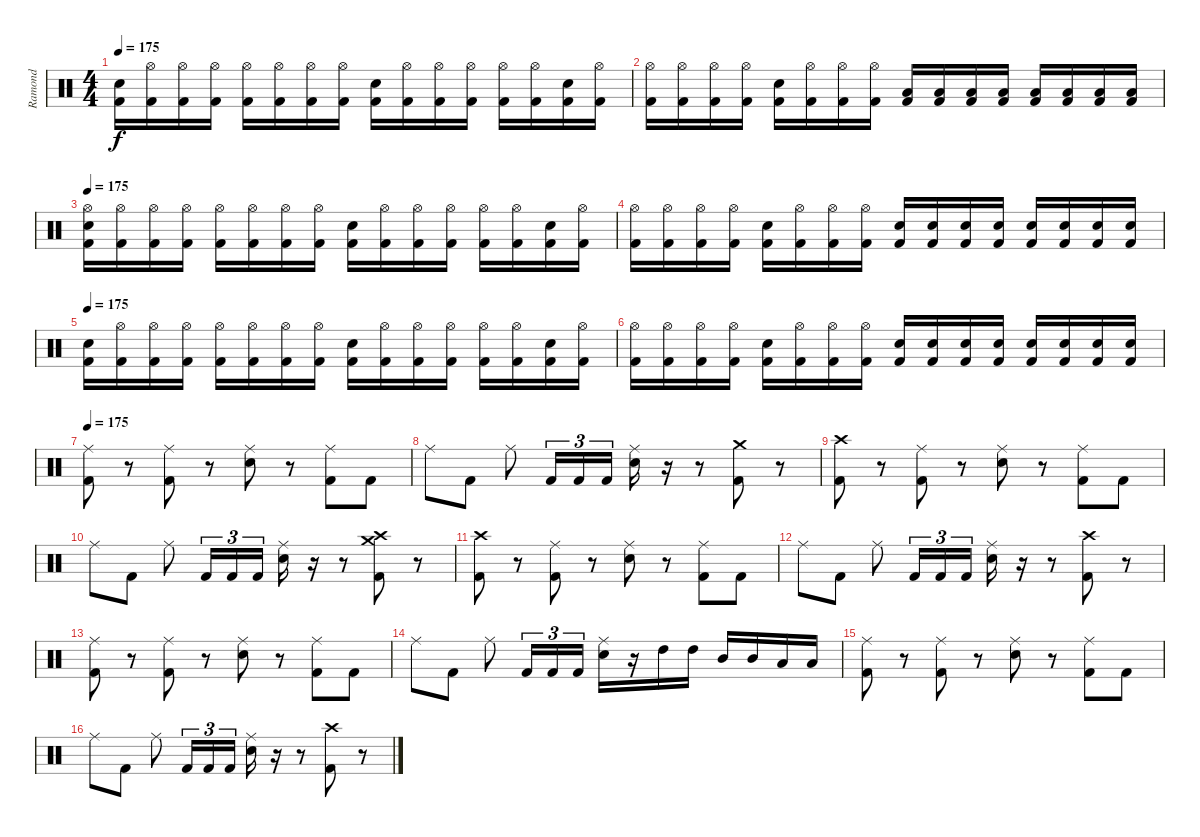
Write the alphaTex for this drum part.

\track ("Ramond" "Ramond") {instrument percussion}
\staff {score}
\articulation defaults
\ts (4 4)
\tempo 175
\clef neutral
\ks c
("Electric Snare (hit)" "Kick (hit) 2").16{dy f} ("Hi-Hat (open)" "Kick (hit) 2").16 ("Hi-Hat (open)" "Kick (hit) 2").16 ("Hi-Hat (open)" "Kick (hit) 2").16 ("Hi-Hat (open)" "Kick (hit) 2").16 ("Hi-Hat (open)" "Kick (hit) 2").16 ("Hi-Hat (open)" "Kick (hit) 2").16 ("Hi-Hat (open)" "Kick (hit) 2").16 ("Electric Snare (hit)" "Kick (hit) 2").16 ("Hi-Hat (open)" "Kick (hit) 2").16 ("Hi-Hat (open)" "Kick (hit) 2").16 ("Hi-Hat (open)" "Kick (hit) 2").16 ("Hi-Hat (open)" "Kick (hit) 2").16 ("Hi-Hat (open)" "Kick (hit) 2").16 ("Electric Snare (hit)" "Kick (hit) 2").16 ("Hi-Hat (open)" "Kick (hit) 2").16 |
("Hi-Hat (open)" "Kick (hit) 2").16 ("Hi-Hat (open)" "Kick (hit) 2").16 ("Hi-Hat (open)" "Kick (hit) 2").16 ("Hi-Hat (open)" "Kick (hit) 2").16 ("Electric Snare (hit)" "Kick (hit) 2").16 ("Hi-Hat (open)" "Kick (hit) 2").16 ("Hi-Hat (open)" "Kick (hit) 2").16 ("Hi-Hat (open)" "Kick (hit) 2").16 ("Low Floor Tom (hit)" "Kick (hit) 2").16 ("Low Floor Tom (hit)" "Kick (hit) 2").16 ("Low Floor Tom (hit)" "Kick (hit) 2").16 ("Low Floor Tom (hit)" "Kick (hit) 2").16 ("Low Floor Tom (hit)" "Kick (hit) 2").16 ("Low Floor Tom (hit)" "Kick (hit) 2").16 ("Low Floor Tom (hit)" "Kick (hit) 2").16 ("Low Floor Tom (hit)" "Kick (hit) 2").16 |
\tempo 175
("Hi-Hat (open)" "Electric Snare (hit)" "Kick (hit) 2").16 ("Hi-Hat (open)" "Kick (hit) 2").16 ("Hi-Hat (open)" "Kick (hit) 2").16 ("Hi-Hat (open)" "Kick (hit) 2").16 ("Hi-Hat (open)" "Kick (hit) 2").16 ("Hi-Hat (open)" "Kick (hit) 2").16 ("Hi-Hat (open)" "Kick (hit) 2").16 ("Hi-Hat (open)" "Kick (hit) 2").16 ("Electric Snare (hit)" "Kick (hit) 2").16 ("Hi-Hat (open)" "Kick (hit) 2").16 ("Hi-Hat (open)" "Kick (hit) 2").16 ("Hi-Hat (open)" "Kick (hit) 2").16 ("Hi-Hat (open)" "Kick (hit) 2").16 ("Hi-Hat (open)" "Kick (hit) 2").16 ("Electric Snare (hit)" "Kick (hit) 2").16 ("Hi-Hat (open)" "Kick (hit) 2").16 |
("Hi-Hat (open)" "Kick (hit) 2").16 ("Hi-Hat (open)" "Kick (hit) 2").16 ("Hi-Hat (open)" "Kick (hit) 2").16 ("Hi-Hat (open)" "Kick (hit) 2").16 ("Electric Snare (hit)" "Kick (hit) 2").16 ("Hi-Hat (open)" "Kick (hit) 2").16 ("Hi-Hat (open)" "Kick (hit) 2").16 ("Hi-Hat (open)" "Kick (hit) 2").16 ("Electric Snare (hit)" "Kick (hit) 2").16 ("Electric Snare (hit)" "Kick (hit) 2").16 ("Electric Snare (hit)" "Kick (hit) 2").16 ("Electric Snare (hit)" "Kick (hit) 2").16 ("Electric Snare (hit)" "Kick (hit) 2").16 ("Electric Snare (hit)" "Kick (hit) 2").16 ("Electric Snare (hit)" "Kick (hit) 2").16 ("Electric Snare (hit)" "Kick (hit) 2").16 |
\tempo 175
("Electric Snare (hit)" "Kick (hit) 2").16 ("Hi-Hat (open)" "Kick (hit) 2").16 ("Hi-Hat (open)" "Kick (hit) 2").16 ("Hi-Hat (open)" "Kick (hit) 2").16 ("Hi-Hat (open)" "Kick (hit) 2").16 ("Hi-Hat (open)" "Kick (hit) 2").16 ("Hi-Hat (open)" "Kick (hit) 2").16 ("Hi-Hat (open)" "Kick (hit) 2").16 ("Electric Snare (hit)" "Kick (hit) 2").16 ("Hi-Hat (open)" "Kick (hit) 2").16 ("Hi-Hat (open)" "Kick (hit) 2").16 ("Hi-Hat (open)" "Kick (hit) 2").16 ("Hi-Hat (open)" "Kick (hit) 2").16 ("Hi-Hat (open)" "Kick (hit) 2").16 ("Electric Snare (hit)" "Kick (hit) 2").16 ("Hi-Hat (open)" "Kick (hit) 2").16 |
("Hi-Hat (open)" "Kick (hit) 2").16 ("Hi-Hat (open)" "Kick (hit) 2").16 ("Hi-Hat (open)" "Kick (hit) 2").16 ("Hi-Hat (open)" "Kick (hit) 2").16 ("Electric Snare (hit)" "Kick (hit) 2").16 ("Hi-Hat (open)" "Kick (hit) 2").16 ("Hi-Hat (open)" "Kick (hit) 2").16 ("Hi-Hat (open)" "Kick (hit) 2").16 ("Electric Snare (hit)" "Kick (hit) 2").16 ("Electric Snare (hit)" "Kick (hit) 2").16 ("Electric Snare (hit)" "Kick (hit) 2").16 ("Electric Snare (hit)" "Kick (hit) 2").16 ("Electric Snare (hit)" "Kick (hit) 2").16 ("Electric Snare (hit)" "Kick (hit) 2").16 ("Electric Snare (hit)" "Kick (hit) 2").16 ("Electric Snare (hit)" "Kick (hit) 2").16 |
\tempo 175
("Ride (middle)" "Kick (hit) 2").8 r.8 ("Ride (middle)" "Kick (hit) 2").8 r.8 ("Ride (middle)" "Electric Snare (hit)").8 r.8 ("Ride (middle)" "Kick (hit) 2").8 "Kick (hit) 2".8 |
"Ride (middle)".8 "Kick (hit) 2".8 "Ride (middle)".8 "Kick (hit) 2".16{tu (3 2)} "Kick (hit) 2".16{tu (3 2)} "Kick (hit) 2".16{tu (3 2)} ("Ride (middle)" "Electric Snare (hit)").16 r.16 r.8 ("Crash medium (hit)" "Kick (hit) 2").8 r.8 |
("Crash high (hit)" "Kick (hit) 2").8 r.8 ("Ride (middle)" "Kick (hit) 2").8 r.8 ("Ride (middle)" "Electric Snare (hit)").8 r.8 ("Ride (middle)" "Kick (hit) 2").8 "Kick (hit) 2".8 |
"Ride (middle)".8 "Kick (hit) 2".8 "Ride (middle)".8 "Kick (hit) 2".16{tu (3 2)} "Kick (hit) 2".16{tu (3 2)} "Kick (hit) 2".16{tu (3 2)} ("Ride (middle)" "Electric Snare (hit)").16 r.16 r.8 ("Crash high (hit)" "Crash medium (hit)" "Kick (hit) 2").8 r.8 |
("Crash high (hit)" "Kick (hit) 2").8 r.8 ("Ride (middle)" "Kick (hit) 2").8 r.8 ("Ride (middle)" "Electric Snare (hit)").8 r.8 ("Ride (middle)" "Kick (hit) 2").8 "Kick (hit) 2".8 |
"Ride (middle)".8 "Kick (hit) 2".8 "Ride (middle)".8 "Kick (hit) 2".16{tu (3 2)} "Kick (hit) 2".16{tu (3 2)} "Kick (hit) 2".16{tu (3 2)} ("Ride (middle)" "Electric Snare (hit)").16 r.16 r.8 ("Crash high (hit)" "Kick (hit) 2").8 r.8 |
("Ride (middle)" "Kick (hit) 2").8 r.8 ("Ride (middle)" "Kick (hit) 2").8 r.8 ("Ride (middle)" "Electric Snare (hit)").8 r.8 ("Ride (middle)" "Kick (hit) 2").8 "Kick (hit) 2".8 |
"Ride (middle)".8 "Kick (hit) 2".8 "Ride (middle)".8 "Kick (hit) 2".16{tu (3 2)} "Kick (hit) 2".16{tu (3 2)} "Kick (hit) 2".16{tu (3 2)} ("Ride (middle)" "Electric Snare (hit)").16 r.16 "High Tom (hit)".16 "High Tom (hit)".16 "Mid Tom (hit)".16 "Mid Tom (hit)".16 "Low Tom (hit)".16 "Low Tom (hit)".16 |
("Ride (middle)" "Kick (hit) 2").8 r.8 ("Ride (middle)" "Kick (hit) 2").8 r.8 ("Ride (middle)" "Electric Snare (hit)").8 r.8 ("Ride (middle)" "Kick (hit) 2").8 "Kick (hit) 2".8 |
"Ride (middle)".8 "Kick (hit) 2".8 "Ride (middle)".8 "Kick (hit) 2".16{tu (3 2)} "Kick (hit) 2".16{tu (3 2)} "Kick (hit) 2".16{tu (3 2)} ("Ride (middle)" "Electric Snare (hit)").16 r.16 r.8 ("Crash high (hit)" "Kick (hit) 2").8 r.8
